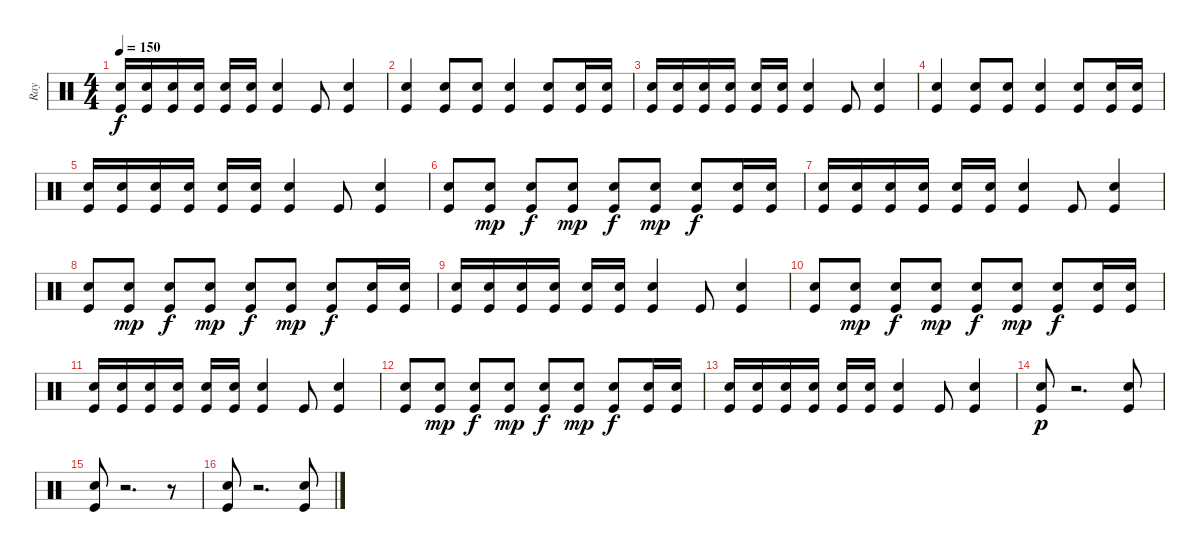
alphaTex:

\track ("Ray" "Ray") {instrument percussion}
\staff {score}
\articulation defaults
\ts (4 4)
\tempo 150
\clef neutral
\ks c
("Kick (hit)" "Electric Snare (hit)").16{dy f} ("Kick (hit)" "Electric Snare (hit)").16 ("Kick (hit)" "Electric Snare (hit)").16 ("Kick (hit)" "Electric Snare (hit)").16 ("Kick (hit)" "Electric Snare (hit)").16 ("Kick (hit)" "Electric Snare (hit)").16 ("Kick (hit)" "Electric Snare (hit)").4 "Kick (hit)".8 ("Kick (hit)" "Electric Snare (hit)").4 |
("Kick (hit)" "Electric Snare (hit)").4 ("Kick (hit)" "Electric Snare (hit)").8 ("Kick (hit)" "Electric Snare (hit)").8 ("Kick (hit)" "Electric Snare (hit)").4 ("Kick (hit)" "Electric Snare (hit)").8 ("Kick (hit)" "Electric Snare (hit)").16 ("Kick (hit)" "Electric Snare (hit)").16 |
("Kick (hit)" "Electric Snare (hit)").16 ("Kick (hit)" "Electric Snare (hit)").16 ("Kick (hit)" "Electric Snare (hit)").16 ("Kick (hit)" "Electric Snare (hit)").16 ("Kick (hit)" "Electric Snare (hit)").16 ("Kick (hit)" "Electric Snare (hit)").16 ("Kick (hit)" "Electric Snare (hit)").4 "Kick (hit)".8 ("Kick (hit)" "Electric Snare (hit)").4 |
("Kick (hit)" "Electric Snare (hit)").4 ("Kick (hit)" "Electric Snare (hit)").8 ("Kick (hit)" "Electric Snare (hit)").8 ("Kick (hit)" "Electric Snare (hit)").4 ("Kick (hit)" "Electric Snare (hit)").8 ("Kick (hit)" "Electric Snare (hit)").16 ("Kick (hit)" "Electric Snare (hit)").16 |
("Kick (hit)" "Electric Snare (hit)").16 ("Kick (hit)" "Electric Snare (hit)").16 ("Kick (hit)" "Electric Snare (hit)").16 ("Kick (hit)" "Electric Snare (hit)").16 ("Kick (hit)" "Electric Snare (hit)").16 ("Kick (hit)" "Electric Snare (hit)").16 ("Kick (hit)" "Electric Snare (hit)").4 "Kick (hit)".8 ("Kick (hit)" "Electric Snare (hit)").4 |
("Kick (hit)" "Electric Snare (hit)").8 ("Kick (hit)" "Electric Snare (hit)").8{dy mp} ("Kick (hit)" "Electric Snare (hit)").8{dy f} ("Kick (hit)" "Electric Snare (hit)").8{dy mp} ("Kick (hit)" "Electric Snare (hit)").8{dy f} ("Kick (hit)" "Electric Snare (hit)").8{dy mp} ("Kick (hit)" "Electric Snare (hit)").8{dy f} ("Kick (hit)" "Electric Snare (hit)").16 ("Kick (hit)" "Electric Snare (hit)").16 |
("Kick (hit)" "Electric Snare (hit)").16 ("Kick (hit)" "Electric Snare (hit)").16 ("Kick (hit)" "Electric Snare (hit)").16 ("Kick (hit)" "Electric Snare (hit)").16 ("Kick (hit)" "Electric Snare (hit)").16 ("Kick (hit)" "Electric Snare (hit)").16 ("Kick (hit)" "Electric Snare (hit)").4 "Kick (hit)".8 ("Kick (hit)" "Electric Snare (hit)").4 |
("Kick (hit)" "Electric Snare (hit)").8 ("Kick (hit)" "Electric Snare (hit)").8{dy mp} ("Kick (hit)" "Electric Snare (hit)").8{dy f} ("Kick (hit)" "Electric Snare (hit)").8{dy mp} ("Kick (hit)" "Electric Snare (hit)").8{dy f} ("Kick (hit)" "Electric Snare (hit)").8{dy mp} ("Kick (hit)" "Electric Snare (hit)").8{dy f} ("Kick (hit)" "Electric Snare (hit)").16 ("Kick (hit)" "Electric Snare (hit)").16 |
("Kick (hit)" "Electric Snare (hit)").16 ("Kick (hit)" "Electric Snare (hit)").16 ("Kick (hit)" "Electric Snare (hit)").16 ("Kick (hit)" "Electric Snare (hit)").16 ("Kick (hit)" "Electric Snare (hit)").16 ("Kick (hit)" "Electric Snare (hit)").16 ("Kick (hit)" "Electric Snare (hit)").4 "Kick (hit)".8 ("Kick (hit)" "Electric Snare (hit)").4 |
("Kick (hit)" "Electric Snare (hit)").8 ("Kick (hit)" "Electric Snare (hit)").8{dy mp} ("Kick (hit)" "Electric Snare (hit)").8{dy f} ("Kick (hit)" "Electric Snare (hit)").8{dy mp} ("Kick (hit)" "Electric Snare (hit)").8{dy f} ("Kick (hit)" "Electric Snare (hit)").8{dy mp} ("Kick (hit)" "Electric Snare (hit)").8{dy f} ("Kick (hit)" "Electric Snare (hit)").16 ("Kick (hit)" "Electric Snare (hit)").16 |
("Kick (hit)" "Electric Snare (hit)").16 ("Kick (hit)" "Electric Snare (hit)").16 ("Kick (hit)" "Electric Snare (hit)").16 ("Kick (hit)" "Electric Snare (hit)").16 ("Kick (hit)" "Electric Snare (hit)").16 ("Kick (hit)" "Electric Snare (hit)").16 ("Kick (hit)" "Electric Snare (hit)").4 "Kick (hit)".8 ("Kick (hit)" "Electric Snare (hit)").4 |
("Kick (hit)" "Electric Snare (hit)").8 ("Kick (hit)" "Electric Snare (hit)").8{dy mp} ("Kick (hit)" "Electric Snare (hit)").8{dy f} ("Kick (hit)" "Electric Snare (hit)").8{dy mp} ("Kick (hit)" "Electric Snare (hit)").8{dy f} ("Kick (hit)" "Electric Snare (hit)").8{dy mp} ("Kick (hit)" "Electric Snare (hit)").8{dy f} ("Kick (hit)" "Electric Snare (hit)").16 ("Kick (hit)" "Electric Snare (hit)").16 |
("Kick (hit)" "Electric Snare (hit)").16 ("Kick (hit)" "Electric Snare (hit)").16 ("Kick (hit)" "Electric Snare (hit)").16 ("Kick (hit)" "Electric Snare (hit)").16 ("Kick (hit)" "Electric Snare (hit)").16 ("Kick (hit)" "Electric Snare (hit)").16 ("Kick (hit)" "Electric Snare (hit)").4 "Kick (hit)".8 ("Kick (hit)" "Electric Snare (hit)").4 |
("Kick (hit)" "Electric Snare (hit)").8{dy p} r.2{d} ("Kick (hit)" "Electric Snare (hit)").8 |
("Kick (hit)" "Electric Snare (hit)").8 r.2{d} r.8 |
("Kick (hit)" "Electric Snare (hit)").8 r.2{d} ("Kick (hit)" "Electric Snare (hit)").8
